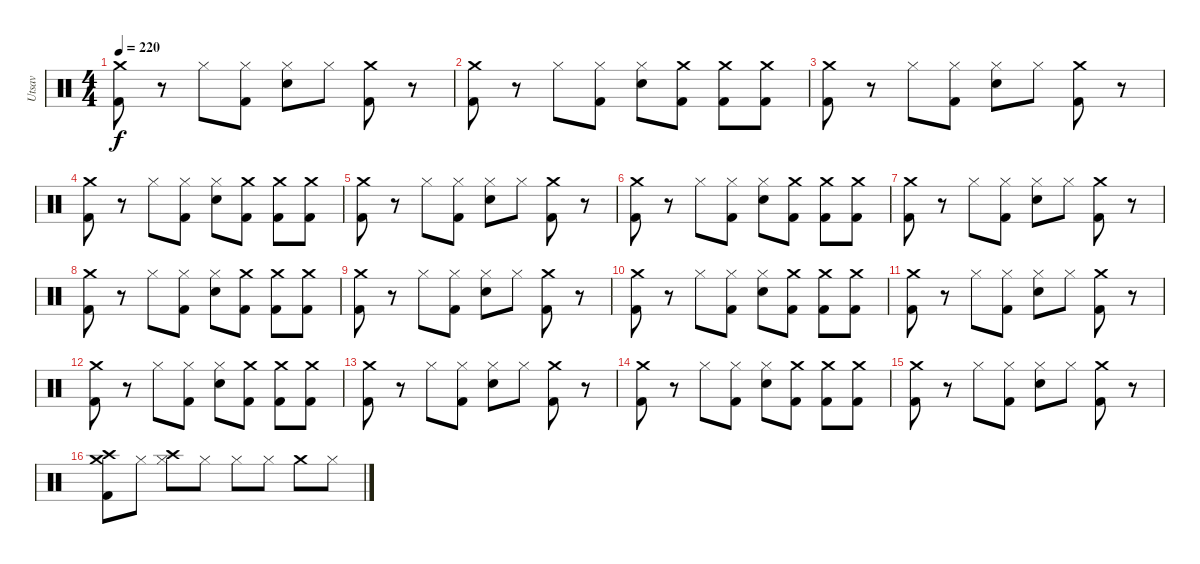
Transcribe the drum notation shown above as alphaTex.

\track ("Utsav" "Utsav") {instrument percussion}
\staff {score}
\articulation defaults
\ts (4 4)
\tempo 220
\clef neutral
\ks c
("Crash medium (hit)" "Kick (hit) 2").8{dy f} r.8 "Hi-Hat (closed)".8 ("Hi-Hat (closed)" "Kick (hit) 2").8 ("Hi-Hat (closed)" "Snare (hit) 2").8 "Hi-Hat (closed)".8 ("Crash medium (hit)" "Kick (hit) 2").8 r.8 |
("Crash medium (hit)" "Kick (hit) 2").8 r.8 "Hi-Hat (closed)".8 ("Hi-Hat (closed)" "Kick (hit) 2").8 ("Hi-Hat (closed)" "Snare (hit) 2").8 ("Crash medium (hit)" "Kick (hit) 2").8 ("Crash medium (hit)" "Kick (hit) 2").8 ("Crash medium (hit)" "Kick (hit) 2").8 |
("Crash medium (hit)" "Kick (hit) 2").8 r.8 "Hi-Hat (closed)".8 ("Hi-Hat (closed)" "Kick (hit) 2").8 ("Hi-Hat (closed)" "Snare (hit) 2").8 "Hi-Hat (closed)".8 ("Crash medium (hit)" "Kick (hit) 2").8 r.8 |
("Crash medium (hit)" "Kick (hit) 2").8 r.8 "Hi-Hat (closed)".8 ("Hi-Hat (closed)" "Kick (hit) 2").8 ("Hi-Hat (closed)" "Snare (hit) 2").8 ("Crash medium (hit)" "Kick (hit) 2").8 ("Crash medium (hit)" "Kick (hit) 2").8 ("Crash medium (hit)" "Kick (hit) 2").8 |
("Crash medium (hit)" "Kick (hit) 2").8 r.8 "Hi-Hat (closed)".8 ("Hi-Hat (closed)" "Kick (hit) 2").8 ("Hi-Hat (closed)" "Snare (hit) 2").8 "Hi-Hat (closed)".8 ("Crash medium (hit)" "Kick (hit) 2").8 r.8 |
("Crash medium (hit)" "Kick (hit) 2").8 r.8 "Hi-Hat (closed)".8 ("Hi-Hat (closed)" "Kick (hit) 2").8 ("Hi-Hat (closed)" "Snare (hit) 2").8 ("Crash medium (hit)" "Kick (hit) 2").8 ("Crash medium (hit)" "Kick (hit) 2").8 ("Crash medium (hit)" "Kick (hit) 2").8 |
("Crash medium (hit)" "Kick (hit) 2").8 r.8 "Hi-Hat (closed)".8 ("Hi-Hat (closed)" "Kick (hit) 2").8 ("Hi-Hat (closed)" "Snare (hit) 2").8 "Hi-Hat (closed)".8 ("Crash medium (hit)" "Kick (hit) 2").8 r.8 |
("Crash medium (hit)" "Kick (hit) 2").8 r.8 "Hi-Hat (closed)".8 ("Hi-Hat (closed)" "Kick (hit) 2").8 ("Hi-Hat (closed)" "Snare (hit) 2").8 ("Crash medium (hit)" "Kick (hit) 2").8 ("Crash medium (hit)" "Kick (hit) 2").8 ("Crash medium (hit)" "Kick (hit) 2").8 |
("Crash medium (hit)" "Kick (hit) 2").8 r.8 "Hi-Hat (closed)".8 ("Hi-Hat (closed)" "Kick (hit) 2").8 ("Hi-Hat (closed)" "Snare (hit) 2").8 "Hi-Hat (closed)".8 ("Crash medium (hit)" "Kick (hit) 2").8 r.8 |
("Crash medium (hit)" "Kick (hit) 2").8 r.8 "Hi-Hat (closed)".8 ("Hi-Hat (closed)" "Kick (hit) 2").8 ("Hi-Hat (closed)" "Snare (hit) 2").8 ("Crash medium (hit)" "Kick (hit) 2").8 ("Crash medium (hit)" "Kick (hit) 2").8 ("Crash medium (hit)" "Kick (hit) 2").8 |
("Crash medium (hit)" "Kick (hit) 2").8 r.8 "Hi-Hat (closed)".8 ("Hi-Hat (closed)" "Kick (hit) 2").8 ("Hi-Hat (closed)" "Snare (hit) 2").8 "Hi-Hat (closed)".8 ("Crash medium (hit)" "Kick (hit) 2").8 r.8 |
("Crash medium (hit)" "Kick (hit) 2").8 r.8 "Hi-Hat (closed)".8 ("Hi-Hat (closed)" "Kick (hit) 2").8 ("Hi-Hat (closed)" "Snare (hit) 2").8 ("Crash medium (hit)" "Kick (hit) 2").8 ("Crash medium (hit)" "Kick (hit) 2").8 ("Crash medium (hit)" "Kick (hit) 2").8 |
("Crash medium (hit)" "Kick (hit) 2").8 r.8 "Hi-Hat (closed)".8 ("Hi-Hat (closed)" "Kick (hit) 2").8 ("Hi-Hat (closed)" "Snare (hit) 2").8 "Hi-Hat (closed)".8 ("Crash medium (hit)" "Kick (hit) 2").8 r.8 |
("Crash medium (hit)" "Kick (hit) 2").8 r.8 "Hi-Hat (closed)".8 ("Hi-Hat (closed)" "Kick (hit) 2").8 ("Hi-Hat (closed)" "Snare (hit) 2").8 ("Crash medium (hit)" "Kick (hit) 2").8 ("Crash medium (hit)" "Kick (hit) 2").8 ("Crash medium (hit)" "Kick (hit) 2").8 |
("Crash medium (hit)" "Kick (hit) 2").8 r.8 "Hi-Hat (closed)".8 ("Hi-Hat (closed)" "Kick (hit) 2").8 ("Hi-Hat (closed)" "Snare (hit) 2").8 "Hi-Hat (closed)".8 ("Crash medium (hit)" "Kick (hit) 2").8 r.8 |
("Crash medium (hit)" "Crash high (hit)" "Kick (hit) 2").8 "Hi-Hat (closed)".8 ("Hi-Hat (closed)" "Crash high (hit)").8 "Hi-Hat (closed)".8 "Hi-Hat (closed)".8 "Hi-Hat (closed)".8 "Crash medium (hit)".8 "Hi-Hat (closed)".8
